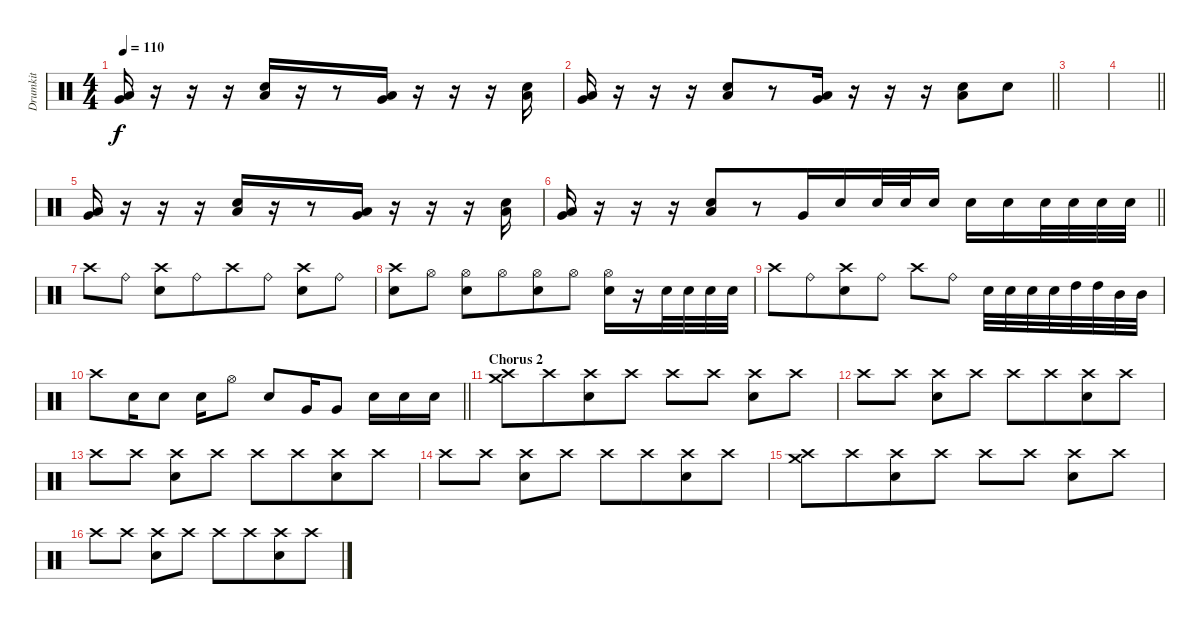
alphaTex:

\track ("Drumkit" "Drumkit") {instrument percussion}
\staff {score}
\articulation defaults
\ts (4 4)
\tempo 110
\clef neutral
\ks c
("Low Floor Tom (hit)" "Very Low Tom (hit)").16{dy f} r.16 r.16{beam merge} r.16{beam merge} ("Low Floor Tom (hit)" "Electric Snare (hit)").16{beam merge} r.16{beam merge} r.8 ("Low Floor Tom (hit)" "Very Low Tom (hit)").16 r.16 r.16 r.16{beam merge} ("Low Floor Tom (hit)" "Electric Snare (hit)").16 |
\barLineRight lightlight
("Low Floor Tom (hit)" "Very Low Tom (hit)").16 r.16 r.16{beam merge} r.16{beam merge} ("Low Floor Tom (hit)" "Electric Snare (hit)").8{beam merge} r.8 ("Low Floor Tom (hit)" "Very Low Tom (hit)").16 r.16 r.16 r.16{beam merge} ("Low Floor Tom (hit)" "Electric Snare (hit)").8 "Electric Snare (hit)".8 |
|
\barLineRight lightlight
|
("Low Floor Tom (hit)" "Very Low Tom (hit)").16 r.16 r.16{beam merge} r.16{beam merge} ("Low Floor Tom (hit)" "Electric Snare (hit)").16{beam merge} r.16{beam merge} r.8 ("Low Floor Tom (hit)" "Very Low Tom (hit)").16 r.16 r.16 r.16{beam merge} ("Low Floor Tom (hit)" "Electric Snare (hit)").16 |
\barLineRight lightlight
("Low Floor Tom (hit)" "Very Low Tom (hit)").16 r.16 r.16{beam merge} r.16{beam merge} ("Low Floor Tom (hit)" "Electric Snare (hit)").8{beam merge} r.8 "Very Low Tom (hit)".16 "Electric Snare (hit)".16 "Electric Snare (hit)".32{beam merge} "Electric Snare (hit)".32 "Electric Snare (hit)".16 "Electric Snare (hit)".16 "Electric Snare (hit)".16 "Electric Snare (hit)".32 "Electric Snare (hit)".32{beam merge} "Electric Snare (hit)".32{beam merge} "Electric Snare (hit)".32 |
"Crash high (hit)".8 "Ride (bell)".8 ("Crash high (hit)" "Electric Snare (hit)").8 "Ride (bell)".8{beam merge} "Crash high (hit)".8{beam merge} "Ride (bell)".8 ("Crash high (hit)" "Electric Snare (hit)").8{beam merge} "Ride (bell)".8 |
("Crash high (hit)" "Electric Snare (hit)").8{beam merge} "Hi-Hat (open)".8 ("Hi-Hat (open)" "Electric Snare (hit)").8{beam merge} "Hi-Hat (open)".8{beam merge} ("Hi-Hat (open)" "Electric Snare (hit)").8 "Hi-Hat (open)".8 ("Hi-Hat (open)" "Electric Snare (hit)").16 r.16 "Electric Snare (hit)".32 "Electric Snare (hit)".32 "Electric Snare (hit)".32 "Electric Snare (hit)".32 |
"Crash high (hit)".8 "Ride (bell)".8{beam merge} ("Crash high (hit)" "Electric Snare (hit)").8 "Ride (bell)".8 "Crash high (hit)".8{beam merge} "Ride (bell)".8 "Electric Snare (hit)".32 "Electric Snare (hit)".32 "Electric Snare (hit)".32 "Electric Snare (hit)".32{beam merge} "High Tom (hit)".32 "High Tom (hit)".32{beam merge} "Mid Tom (hit)".32 "Mid Tom (hit)".32 |
\barLineRight lightlight "Crash high (hit)".8 "Electric Snare (hit)".16 "Electric Snare (hit)".8 "Electric Snare (hit)".16 "Hi-Hat (open)".8 "Electric Snare (hit)".8 "Very Low Tom (hit)".16 "Very Low Tom (hit)".8 "Electric Snare (hit)".16 "Electric Snare (hit)".16{beam merge} "Electric Snare (hit)".16
|
\section ("" "Chorus 2")
("Crash medium (hit)" "Crash high (hit)").8 "Crash high (hit)".8{beam merge} ("Crash high (hit)" "Electric Snare (hit)").8 "Crash high (hit)".8 "Crash high (hit)".8 "Crash high (hit)".8 ("Crash high (hit)" "Electric Snare (hit)").8 "Crash high (hit)".8 |
"Crash high (hit)".8 "Crash high (hit)".8 ("Crash high (hit)" "Electric Snare (hit)").8{beam merge} "Crash high (hit)".8 "Crash high (hit)".8{beam merge} "Crash high (hit)".8{beam merge} ("Crash high (hit)" "Electric Snare (hit)").8 "Crash high (hit)".8 |
"Crash high (hit)".8 "Crash high (hit)".8 ("Crash high (hit)" "Electric Snare (hit)").8{beam merge} "Crash high (hit)".8 "Crash high (hit)".8{beam merge} "Crash high (hit)".8{beam merge} ("Crash high (hit)" "Electric Snare (hit)").8 "Crash high (hit)".8 |
"Crash high (hit)".8 "Crash high (hit)".8 ("Crash high (hit)" "Electric Snare (hit)").8{beam merge} "Crash high (hit)".8 "Crash high (hit)".8{beam merge} "Crash high (hit)".8{beam merge} ("Crash high (hit)" "Electric Snare (hit)").8 "Crash high (hit)".8 |
("Crash medium (hit)" "Crash high (hit)").8 "Crash high (hit)".8{beam merge} ("Crash high (hit)" "Electric Snare (hit)").8 "Crash high (hit)".8 "Crash high (hit)".8 "Crash high (hit)".8 ("Crash high (hit)" "Electric Snare (hit)").8 "Crash high (hit)".8 |
"Crash high (hit)".8 "Crash high (hit)".8 ("Crash high (hit)" "Electric Snare (hit)").8{beam merge} "Crash high (hit)".8 "Crash high (hit)".8{beam merge} "Crash high (hit)".8{beam merge} ("Crash high (hit)" "Electric Snare (hit)").8 "Crash high (hit)".8
